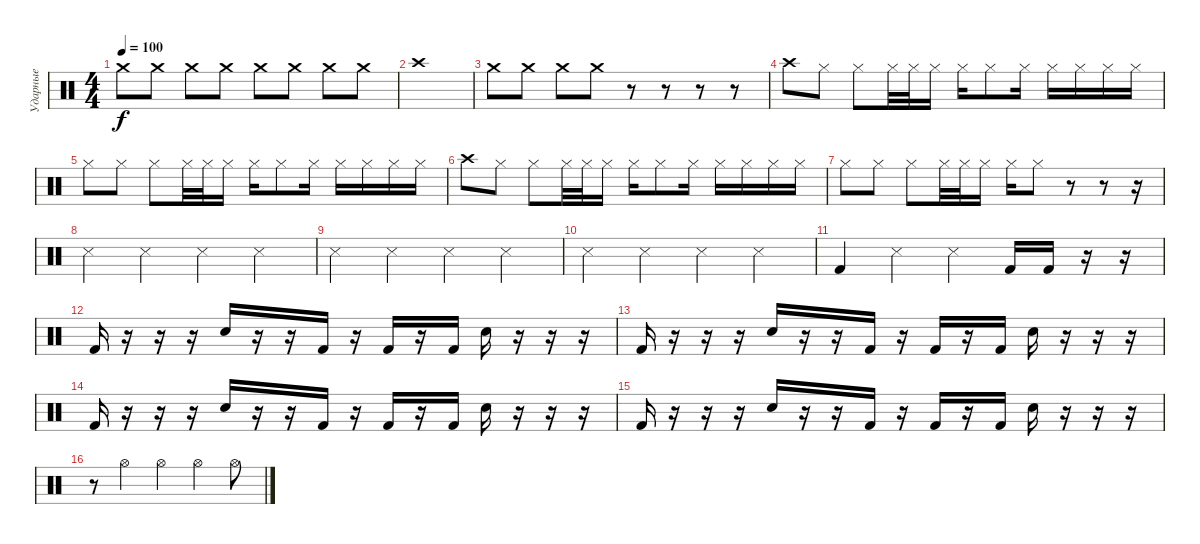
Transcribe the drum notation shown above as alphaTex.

\track ("Ударные" "Ударные") {instrument percussion}
\staff {score}
\articulation defaults
\ts (4 4)
\tempo 100
\clef neutral
\ks c "Crash medium (hit)".8{dy f} "Crash medium (hit)".8 "Crash medium (hit)".8 "Crash medium (hit)".8 "Crash medium (hit)".8 "Crash medium (hit)".8 "Crash medium (hit)".8 "Crash medium (hit)".8
|
"Crash high (hit)".1 |
"Crash medium (hit)".8 "Crash medium (hit)".8 "Crash medium (hit)".8 "Crash medium (hit)".8 r.8 r.8 r.8 r.8 |
"Crash high (hit)".8 "Hi-Hat (closed)".8 "Hi-Hat (closed)".8 "Hi-Hat (closed)".32 "Hi-Hat (closed)".32 "Hi-Hat (closed)".16 "Hi-Hat (closed)".16 "Hi-Hat (closed)".8 "Hi-Hat (closed)".16 "Hi-Hat (closed)".16 "Hi-Hat (closed)".16 "Hi-Hat (closed)".16 "Hi-Hat (closed)".16 |
"Hi-Hat (closed)".8 "Hi-Hat (closed)".8 "Hi-Hat (closed)".8 "Hi-Hat (closed)".32 "Hi-Hat (closed)".32 "Hi-Hat (closed)".16 "Hi-Hat (closed)".16 "Hi-Hat (closed)".8 "Hi-Hat (closed)".16 "Hi-Hat (closed)".16 "Hi-Hat (closed)".16 "Hi-Hat (closed)".16 "Hi-Hat (closed)".16 |
"Crash high (hit)".8 "Hi-Hat (closed)".8 "Hi-Hat (closed)".8 "Hi-Hat (closed)".32 "Hi-Hat (closed)".32 "Hi-Hat (closed)".16 "Hi-Hat (closed)".16 "Hi-Hat (closed)".8 "Hi-Hat (closed)".16 "Hi-Hat (closed)".16 "Hi-Hat (closed)".16 "Hi-Hat (closed)".16 "Hi-Hat (closed)".16 |
"Hi-Hat (closed)".8 "Hi-Hat (closed)".8 "Hi-Hat (closed)".8 "Hi-Hat (closed)".32 "Hi-Hat (closed)".32 "Hi-Hat (closed)".16 "Hi-Hat (closed)".16 "Hi-Hat (closed)".8 r.8 r.8 r.16 |
"Snare (side stick) 3".4 "Snare (side stick) 3".4 "Snare (side stick) 3".4 "Snare (side stick) 3".4 |
"Snare (side stick) 3".4 "Snare (side stick) 3".4 "Snare (side stick) 3".4 "Snare (side stick) 3".4 |
"Snare (side stick) 3".4 "Snare (side stick) 3".4 "Snare (side stick) 3".4 "Snare (side stick) 3".4 |
"Kick (hit) 2".4 "Snare (side stick) 3".4 "Snare (side stick) 3".4 "Kick (hit) 2".16 "Kick (hit) 2".16 r.16 r.16 |
"Kick (hit) 2".16 r.16 r.16 r.16 "Electric Snare (hit)".16 r.16 r.16 "Kick (hit) 2".16 r.16 "Kick (hit) 2".16 r.16 "Kick (hit) 2".16 "Electric Snare (hit)".16 r.16 r.16 r.16 |
"Kick (hit) 2".16 r.16 r.16 r.16 "Electric Snare (hit)".16 r.16 r.16 "Kick (hit) 2".16 r.16 "Kick (hit) 2".16 r.16 "Kick (hit) 2".16 "Electric Snare (hit)".16 r.16 r.16 r.16 |
"Kick (hit) 2".16 r.16 r.16 r.16 "Electric Snare (hit)".16 r.16 r.16 "Kick (hit) 2".16 r.16 "Kick (hit) 2".16 r.16 "Kick (hit) 2".16 "Electric Snare (hit)".16 r.16 r.16 r.16 |
"Kick (hit) 2".16 r.16 r.16 r.16 "Electric Snare (hit)".16 r.16 r.16 "Kick (hit) 2".16 r.16 "Kick (hit) 2".16 r.16 "Kick (hit) 2".16 "Electric Snare (hit)".16 r.16 r.16 r.16 |
r.8 "Hi-Hat (open)".4 "Hi-Hat (open)".4 "Hi-Hat (open)".4 "Hi-Hat (open)".8
